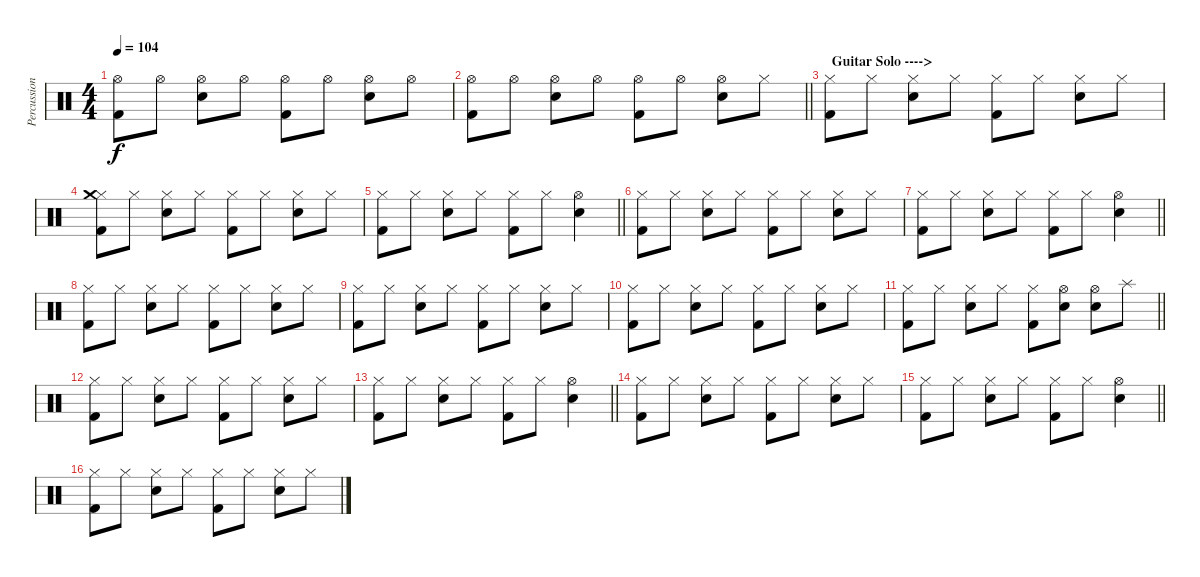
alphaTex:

\track ("Percussion" "Percussion") {instrument percussion}
\staff {score}
\articulation defaults
\ts (4 4)
\tempo 104
\clef neutral
\ks c
("Kick (hit) 2" "Hi-Hat (open)").8{dy f} "Hi-Hat (open)".8 ("Hi-Hat (open)" "Electric Snare (hit)").8 "Hi-Hat (open)".8 ("Kick (hit) 2" "Hi-Hat (open)").8 "Hi-Hat (open)".8 ("Hi-Hat (open)" "Electric Snare (hit)").8 "Hi-Hat (open)".8 |
\barLineRight lightlight
("Kick (hit) 2" "Hi-Hat (open)").8 "Hi-Hat (open)".8 ("Hi-Hat (open)" "Electric Snare (hit)").8 "Hi-Hat (open)".8 ("Kick (hit) 2" "Hi-Hat (open)").8 "Hi-Hat (open)".8 ("Hi-Hat (open)" "Electric Snare (hit)").8 "Hi-Hat (closed)".8 |
\section ("" "  Guitar Solo ---->")
("Kick (hit) 2" "Hi-Hat (closed)").8 "Hi-Hat (closed)".8 ("Hi-Hat (closed)" "Electric Snare (hit)").8 "Hi-Hat (closed)".8 ("Kick (hit) 2" "Hi-Hat (closed)").8 "Hi-Hat (closed)".8 ("Hi-Hat (closed)" "Electric Snare (hit)").8 "Hi-Hat (closed)".8 |
("Kick (hit) 2" "Hi-Hat (closed)" "Crash medium (hit)").8 "Hi-Hat (closed)".8 ("Hi-Hat (closed)" "Electric Snare (hit)").8 "Hi-Hat (closed)".8 ("Kick (hit) 2" "Hi-Hat (closed)").8 "Hi-Hat (closed)".8 ("Hi-Hat (closed)" "Electric Snare (hit)").8 "Hi-Hat (closed)".8 |
\barLineRight lightlight
("Kick (hit) 2" "Hi-Hat (closed)").8 "Hi-Hat (closed)".8 ("Hi-Hat (closed)" "Electric Snare (hit)").8 "Hi-Hat (closed)".8 ("Kick (hit) 2" "Hi-Hat (closed)").8 "Hi-Hat (closed)".8 ("Hi-Hat (open)" "Electric Snare (hit)").4 |
("Kick (hit) 2" "Hi-Hat (closed)").8 "Hi-Hat (closed)".8 ("Hi-Hat (closed)" "Electric Snare (hit)").8 "Hi-Hat (closed)".8 ("Kick (hit) 2" "Hi-Hat (closed)").8 "Hi-Hat (closed)".8 ("Hi-Hat (closed)" "Electric Snare (hit)").8 "Hi-Hat (closed)".8 |
\barLineRight lightlight
("Kick (hit) 2" "Hi-Hat (closed)").8 "Hi-Hat (closed)".8 ("Hi-Hat (closed)" "Electric Snare (hit)").8 "Hi-Hat (closed)".8 ("Kick (hit) 2" "Hi-Hat (closed)").8 "Hi-Hat (closed)".8 ("Hi-Hat (open)" "Electric Snare (hit)").4 |
("Kick (hit) 2" "Hi-Hat (closed)").8 "Hi-Hat (closed)".8 ("Hi-Hat (closed)" "Electric Snare (hit)").8 "Hi-Hat (closed)".8 ("Kick (hit) 2" "Hi-Hat (closed)").8 "Hi-Hat (closed)".8 ("Hi-Hat (closed)" "Electric Snare (hit)").8 "Hi-Hat (closed)".8 |
("Kick (hit) 2" "Hi-Hat (closed)").8 "Hi-Hat (closed)".8 ("Hi-Hat (closed)" "Electric Snare (hit)").8 "Hi-Hat (closed)".8 ("Kick (hit) 2" "Hi-Hat (closed)").8 "Hi-Hat (closed)".8 ("Hi-Hat (closed)" "Electric Snare (hit)").8 "Hi-Hat (closed)".8 |
("Kick (hit) 2" "Hi-Hat (closed)").8 "Hi-Hat (closed)".8 ("Hi-Hat (closed)" "Electric Snare (hit)").8 "Hi-Hat (closed)".8 ("Kick (hit) 2" "Hi-Hat (closed)").8 "Hi-Hat (closed)".8 ("Hi-Hat (closed)" "Electric Snare (hit)").8 "Hi-Hat (closed)".8 |
\barLineRight lightlight
("Kick (hit) 2" "Hi-Hat (closed)").8 "Hi-Hat (closed)".8 ("Hi-Hat (closed)" "Electric Snare (hit)").8 "Hi-Hat (closed)".8 ("Kick (hit) 2" "Hi-Hat (closed)").8 ("Hi-Hat (open)" "Electric Snare (hit)").8 ("Hi-Hat (open)" "Electric Snare (hit)").8 "Splash (hit)".8 |
("Kick (hit) 2" "Hi-Hat (closed)").8 "Hi-Hat (closed)".8 ("Hi-Hat (closed)" "Electric Snare (hit)").8 "Hi-Hat (closed)".8 ("Kick (hit) 2" "Hi-Hat (closed)").8 "Hi-Hat (closed)".8 ("Hi-Hat (closed)" "Electric Snare (hit)").8 "Hi-Hat (closed)".8 |
\barLineRight lightlight
("Kick (hit) 2" "Hi-Hat (closed)").8 "Hi-Hat (closed)".8 ("Hi-Hat (closed)" "Electric Snare (hit)").8 "Hi-Hat (closed)".8 ("Kick (hit) 2" "Hi-Hat (closed)").8 "Hi-Hat (closed)".8 ("Hi-Hat (open)" "Electric Snare (hit)").4 |
("Kick (hit) 2" "Hi-Hat (closed)").8 "Hi-Hat (closed)".8 ("Hi-Hat (closed)" "Electric Snare (hit)").8 "Hi-Hat (closed)".8 ("Kick (hit) 2" "Hi-Hat (closed)").8 "Hi-Hat (closed)".8 ("Hi-Hat (closed)" "Electric Snare (hit)").8 "Hi-Hat (closed)".8 |
\barLineRight lightlight
("Kick (hit) 2" "Hi-Hat (closed)").8 "Hi-Hat (closed)".8 ("Hi-Hat (closed)" "Electric Snare (hit)").8 "Hi-Hat (closed)".8 ("Kick (hit) 2" "Hi-Hat (closed)").8 "Hi-Hat (closed)".8 ("Hi-Hat (open)" "Electric Snare (hit)").4 |
("Kick (hit) 2" "Hi-Hat (closed)").8 "Hi-Hat (closed)".8 ("Hi-Hat (closed)" "Electric Snare (hit)").8 "Hi-Hat (closed)".8 ("Kick (hit) 2" "Hi-Hat (closed)").8 "Hi-Hat (closed)".8 ("Hi-Hat (closed)" "Electric Snare (hit)").8 "Hi-Hat (closed)".8
